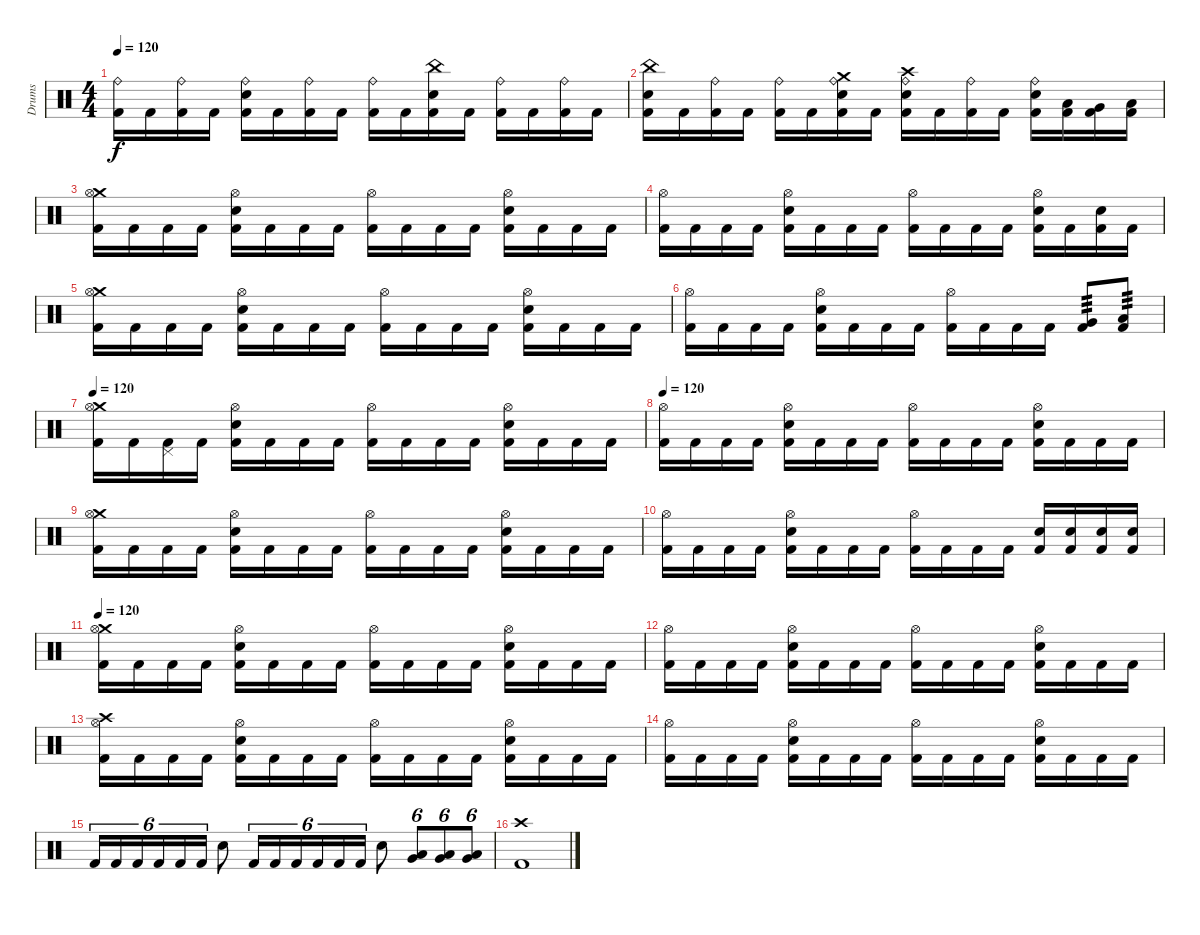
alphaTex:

\track ("Drums" "Drums") {instrument percussion}
\staff {score}
\articulation defaults
\ts (4 4)
\tempo 120
\clef neutral
\ks c
("Ride (bell)" "Kick (hit) 2").16{dy f} "Kick (hit) 2".16 ("Ride (bell)" "Kick (hit) 2").16 "Kick (hit) 2".16 ("Electric Snare (hit)" "Ride (bell)" "Kick (hit) 2").16 "Kick (hit) 2".16 ("Ride (bell)" "Kick (hit) 2").16 "Kick (hit) 2".16 ("Ride (bell)" "Kick (hit) 2").16 "Kick (hit) 2".16 ("China (hit)" "Electric Snare (hit)" "Kick (hit) 2").16 "Kick (hit) 2".16 ("Ride (bell)" "Kick (hit) 2").16 "Kick (hit) 2".16 ("Ride (bell)" "Kick (hit) 2").16 "Kick (hit) 2".16 |
("Electric Snare (hit)" "China (hit)" "Kick (hit) 2").16 "Kick (hit) 2".16 ("Ride (bell)" "Kick (hit) 2").16 "Kick (hit) 2".16 ("Ride (bell)" "Kick (hit) 2").16 "Kick (hit) 2".16 ("Crash medium (hit)" "Electric Snare (hit)" "Ride (bell)" "Kick (hit) 2").16 "Kick (hit) 2".16 ("Crash high (hit)" "Electric Snare (hit)" "Ride (bell)" "Kick (hit) 2").16 "Kick (hit) 2".16 ("Ride (bell)" "Kick (hit) 2").16 "Kick (hit) 2".16 ("Ride (bell)" "Electric Snare (hit)" "Kick (hit) 2").16 ("Low Tom (hit)" "Kick (hit) 2").16 ("Very Low Tom (hit)" "Kick (hit) 2").16 ("Low Floor Tom (hit)" "Kick (hit) 2").16 |
("Crash medium (hit)" "Hi-Hat (open)" "Kick (hit) 2").16 "Kick (hit) 2".16 "Kick (hit) 2".16 "Kick (hit) 2".16 ("Electric Snare (hit)" "Hi-Hat (open)" "Kick (hit) 2").16 "Kick (hit) 2".16 "Kick (hit) 2".16 "Kick (hit) 2".16 ("Hi-Hat (open)" "Kick (hit) 2").16 "Kick (hit) 2".16 "Kick (hit) 2".16 "Kick (hit) 2".16 ("Hi-Hat (open)" "Electric Snare (hit)" "Kick (hit) 2").16 "Kick (hit) 2".16 "Kick (hit) 2".16 "Kick (hit) 2".16 |
("Hi-Hat (open)" "Kick (hit) 2").16 "Kick (hit) 2".16 "Kick (hit) 2".16 "Kick (hit) 2".16 ("Electric Snare (hit)" "Hi-Hat (open)" "Kick (hit) 2").16 "Kick (hit) 2".16 "Kick (hit) 2".16 "Kick (hit) 2".16 ("Hi-Hat (open)" "Kick (hit) 2").16 "Kick (hit) 2".16 "Kick (hit) 2".16 "Kick (hit) 2".16 ("Hi-Hat (open)" "Electric Snare (hit)" "Kick (hit) 2").16 "Kick (hit) 2".16 ("Electric Snare (hit)" "Kick (hit) 2").16 "Kick (hit) 2".16 |
("Crash medium (hit)" "Hi-Hat (open)" "Kick (hit) 2").16 "Kick (hit) 2".16 "Kick (hit) 2".16 "Kick (hit) 2".16 ("Electric Snare (hit)" "Hi-Hat (open)" "Kick (hit) 2").16 "Kick (hit) 2".16 "Kick (hit) 2".16 "Kick (hit) 2".16 ("Hi-Hat (open)" "Kick (hit) 2").16 "Kick (hit) 2".16 "Kick (hit) 2".16 "Kick (hit) 2".16 ("Hi-Hat (open)" "Electric Snare (hit)" "Kick (hit) 2").16 "Kick (hit) 2".16 "Kick (hit) 2".16 "Kick (hit) 2".16 |
("Hi-Hat (open)" "Kick (hit) 2").16 "Kick (hit) 2".16 "Kick (hit) 2".16 "Kick (hit) 2".16 ("Electric Snare (hit)" "Hi-Hat (open)" "Kick (hit) 2").16 "Kick (hit) 2".16 "Kick (hit) 2".16 "Kick (hit) 2".16 ("Hi-Hat (open)" "Kick (hit) 2").16 "Kick (hit) 2".16 "Kick (hit) 2".16 "Kick (hit) 2".16 ("Very Low Tom (hit)" "Kick (hit) 2").8{tp 3} ("Low Floor Tom (hit)" "Kick (hit) 2").8{tp 3} |
\tempo 120
("Crash medium (hit)" "Hi-Hat (open)" "Kick (hit) 2").16 "Kick (hit) 2".16 ("Pedal Hi-Hat (hit)" "Kick (hit) 2").16 "Kick (hit) 2".16 ("Electric Snare (hit)" "Hi-Hat (open)" "Kick (hit) 2").16 "Kick (hit) 2".16 "Kick (hit) 2".16 "Kick (hit) 2".16 ("Hi-Hat (open)" "Kick (hit) 2").16 "Kick (hit) 2".16 "Kick (hit) 2".16 "Kick (hit) 2".16 ("Hi-Hat (open)" "Electric Snare (hit)" "Kick (hit) 2").16 "Kick (hit) 2".16 "Kick (hit) 2".16 "Kick (hit) 2".16 |
\tempo 120
("Hi-Hat (open)" "Kick (hit) 2").16 "Kick (hit) 2".16 "Kick (hit) 2".16 "Kick (hit) 2".16 ("Electric Snare (hit)" "Hi-Hat (open)" "Kick (hit) 2").16 "Kick (hit) 2".16 "Kick (hit) 2".16 "Kick (hit) 2".16 ("Hi-Hat (open)" "Kick (hit) 2").16 "Kick (hit) 2".16 "Kick (hit) 2".16 "Kick (hit) 2".16 ("Hi-Hat (open)" "Electric Snare (hit)" "Kick (hit) 2").16 "Kick (hit) 2".16 "Kick (hit) 2".16 "Kick (hit) 2".16 |
("Crash medium (hit)" "Hi-Hat (open)" "Kick (hit) 2").16 "Kick (hit) 2".16 "Kick (hit) 2".16 "Kick (hit) 2".16 ("Electric Snare (hit)" "Hi-Hat (open)" "Kick (hit) 2").16 "Kick (hit) 2".16 "Kick (hit) 2".16 "Kick (hit) 2".16 ("Hi-Hat (open)" "Kick (hit) 2").16 "Kick (hit) 2".16 "Kick (hit) 2".16 "Kick (hit) 2".16 ("Hi-Hat (open)" "Electric Snare (hit)" "Kick (hit) 2").16 "Kick (hit) 2".16 "Kick (hit) 2".16 "Kick (hit) 2".16 |
("Hi-Hat (open)" "Kick (hit) 2").16 "Kick (hit) 2".16 "Kick (hit) 2".16 "Kick (hit) 2".16 ("Electric Snare (hit)" "Hi-Hat (open)" "Kick (hit) 2").16 "Kick (hit) 2".16 "Kick (hit) 2".16 "Kick (hit) 2".16 ("Hi-Hat (open)" "Kick (hit) 2").16 "Kick (hit) 2".16 "Kick (hit) 2".16 "Kick (hit) 2".16 ("Electric Snare (hit)" "Kick (hit) 2").16 ("Electric Snare (hit)" "Kick (hit) 2").16 ("Electric Snare (hit)" "Kick (hit) 2").16 ("Electric Snare (hit)" "Kick (hit) 2").16 |
\tempo 120
("Crash medium (hit)" "Hi-Hat (open)" "Kick (hit) 2").16 "Kick (hit) 2".16 "Kick (hit) 2".16 "Kick (hit) 2".16 ("Electric Snare (hit)" "Hi-Hat (open)" "Kick (hit) 2").16 "Kick (hit) 2".16 "Kick (hit) 2".16 "Kick (hit) 2".16 ("Hi-Hat (open)" "Kick (hit) 2").16 "Kick (hit) 2".16 "Kick (hit) 2".16 "Kick (hit) 2".16 ("Hi-Hat (open)" "Electric Snare (hit)" "Kick (hit) 2").16 "Kick (hit) 2".16 "Kick (hit) 2".16 "Kick (hit) 2".16 |
("Hi-Hat (open)" "Kick (hit) 2").16 "Kick (hit) 2".16 "Kick (hit) 2".16 "Kick (hit) 2".16 ("Electric Snare (hit)" "Hi-Hat (open)" "Kick (hit) 2").16 "Kick (hit) 2".16 "Kick (hit) 2".16 "Kick (hit) 2".16 ("Hi-Hat (open)" "Kick (hit) 2").16 "Kick (hit) 2".16 "Kick (hit) 2".16 "Kick (hit) 2".16 ("Hi-Hat (open)" "Electric Snare (hit)" "Kick (hit) 2").16 "Kick (hit) 2".16 "Kick (hit) 2".16 "Kick (hit) 2".16 |
("Crash high (hit)" "Hi-Hat (open)" "Kick (hit) 2").16 "Kick (hit) 2".16 "Kick (hit) 2".16 "Kick (hit) 2".16 ("Electric Snare (hit)" "Hi-Hat (open)" "Kick (hit) 2").16 "Kick (hit) 2".16 "Kick (hit) 2".16 "Kick (hit) 2".16 ("Hi-Hat (open)" "Kick (hit) 2").16 "Kick (hit) 2".16 "Kick (hit) 2".16 "Kick (hit) 2".16 ("Hi-Hat (open)" "Electric Snare (hit)" "Kick (hit) 2").16 "Kick (hit) 2".16 "Kick (hit) 2".16 "Kick (hit) 2".16 |
("Hi-Hat (open)" "Kick (hit) 2").16 "Kick (hit) 2".16 "Kick (hit) 2".16 "Kick (hit) 2".16 ("Electric Snare (hit)" "Hi-Hat (open)" "Kick (hit) 2").16 "Kick (hit) 2".16 "Kick (hit) 2".16 "Kick (hit) 2".16 ("Hi-Hat (open)" "Kick (hit) 2").16 "Kick (hit) 2".16 "Kick (hit) 2".16 "Kick (hit) 2".16 ("Hi-Hat (open)" "Electric Snare (hit)" "Kick (hit) 2").16 "Kick (hit) 2".16 "Kick (hit) 2".16 "Kick (hit) 2".16 |
"Kick (hit) 2".16{tu (6 4)} "Kick (hit) 2".16{tu (6 4)} "Kick (hit) 2".16{tu (6 4)} "Kick (hit) 2".16{tu (6 4)} "Kick (hit) 2".16{tu (6 4)} "Kick (hit) 2".16{tu (6 4)} "Electric Snare (hit)".8 "Kick (hit) 2".16{tu (6 4)} "Kick (hit) 2".16{tu (6 4)} "Kick (hit) 2".16{tu (6 4)} "Kick (hit) 2".16{tu (6 4)} "Kick (hit) 2".16{tu (6 4)} "Kick (hit) 2".16{tu (6 4)} "Electric Snare (hit)".8 ("Low Floor Tom (hit)" "Very Low Tom (hit)").8{tu (6 4)} ("Low Floor Tom (hit)" "Very Low Tom (hit)").8{tu (6 4)} ("Low Floor Tom (hit)" "Very Low Tom (hit)").8{tu (6 4)} |
("Crash high (hit)" "Kick (hit) 2").1
